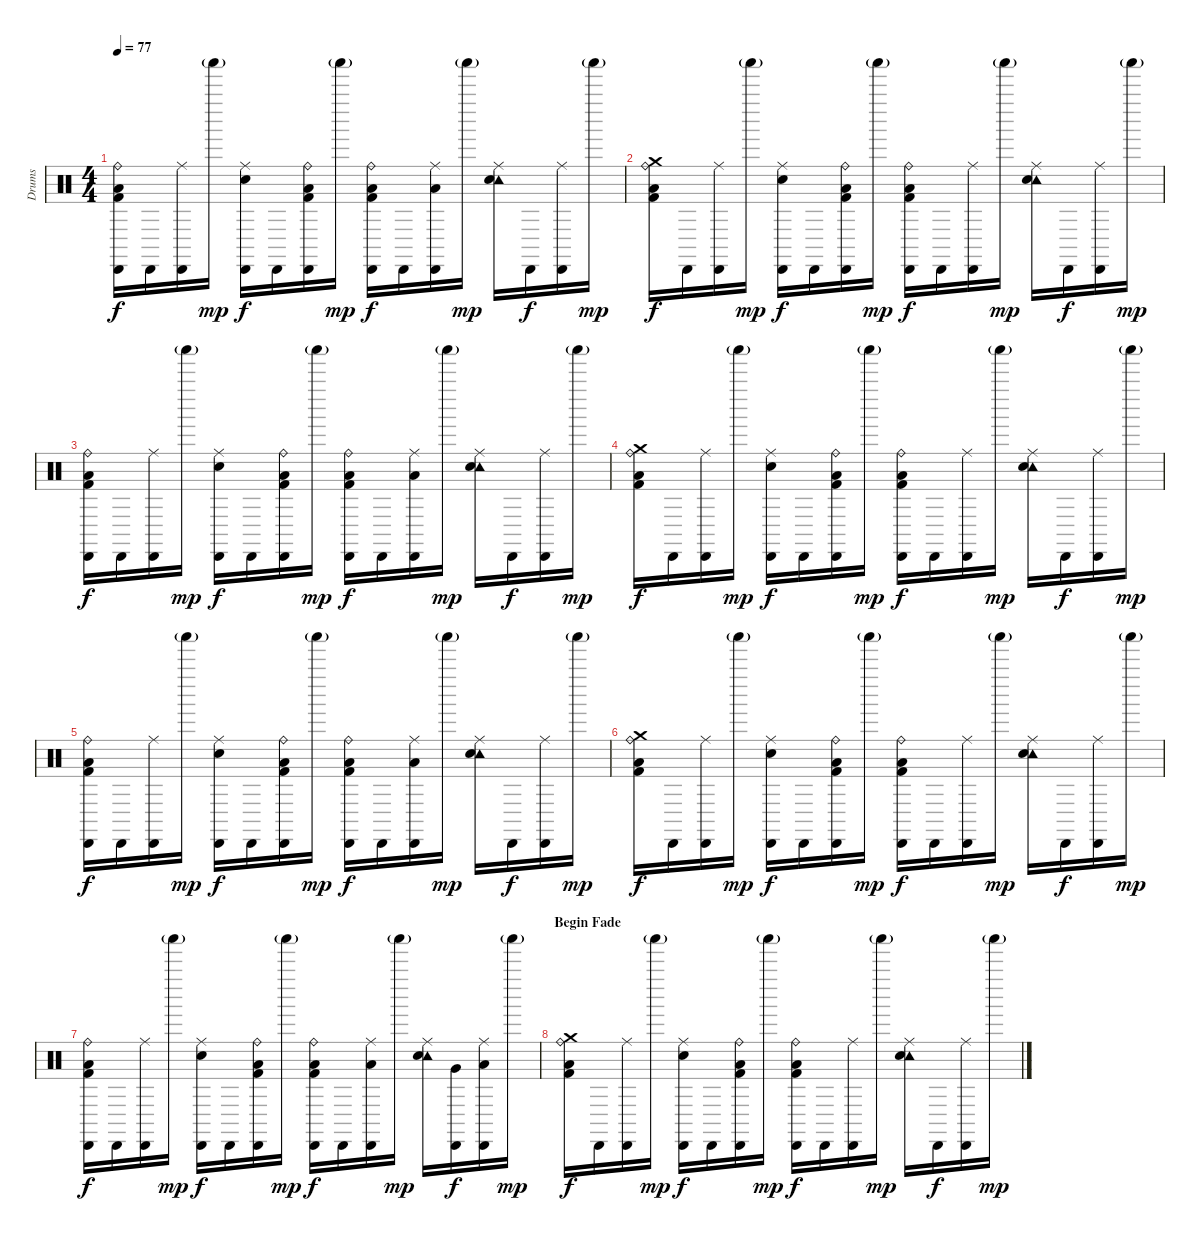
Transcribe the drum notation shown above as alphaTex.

\track ("Drums" "Drums") {instrument percussion}
\staff {score}
\articulation defaults
\ts (4 4)
\tempo 77
\clef neutral
\ks c
("Cabasa (hit)" "Ride (bell)" "Low Floor Tom (hit)" "Kick (hit) 2").16{dy f} "Cabasa (hit)".16 ("Cabasa (hit)" "Ride (middle)").16 "Shaker (hit)"{g}.16{dy mp} ("Cabasa (hit)" "Ride (middle)" "Snare (hit) 2").16{dy f} "Cabasa (hit)".16 ("Cabasa (hit)" "Ride (bell)" "Low Floor Tom (hit)" "Kick (hit) 2").16 "Shaker (hit)"{g}.16{dy mp} ("Cabasa (hit)" "Ride (bell)" "Low Floor Tom (hit)" "Kick (hit) 2").16{dy f} "Cabasa (hit)".16 ("Cabasa (hit)" "Ride (middle)" "Low Floor Tom (hit)").16 "Shaker (hit)"{g}.16{dy mp} ("Tambourine (hit)" "Ride (middle)" "Snare (hit) 2").16 "Cabasa (hit)".16{dy f} ("Cabasa (hit)" "Ride (middle)").16 "Shaker (hit)"{g}.16{dy mp} |
("Crash medium (hit)" "Ride (bell)" "Low Floor Tom (hit)" "Kick (hit) 2").16{dy f} "Cabasa (hit)".16 ("Cabasa (hit)" "Ride (middle)").16 "Shaker (hit)"{g}.16{dy mp} ("Cabasa (hit)" "Ride (middle)" "Snare (hit) 2").16{dy f} "Cabasa (hit)".16 ("Cabasa (hit)" "Ride (bell)" "Low Floor Tom (hit)" "Kick (hit) 2").16 "Shaker (hit)"{g}.16{dy mp} ("Cabasa (hit)" "Ride (bell)" "Low Floor Tom (hit)" "Kick (hit) 2").16{dy f} "Cabasa (hit)".16 ("Cabasa (hit)" "Ride (middle)").16 "Shaker (hit)"{g}.16{dy mp} ("Tambourine (hit)" "Ride (middle)" "Snare (hit) 2").16 "Cabasa (hit)".16{dy f} ("Cabasa (hit)" "Ride (middle)").16 "Shaker (hit)"{g}.16{dy mp} |
("Cabasa (hit)" "Ride (bell)" "Low Floor Tom (hit)" "Kick (hit) 2").16{dy f} "Cabasa (hit)".16 ("Cabasa (hit)" "Ride (middle)").16 "Shaker (hit)"{g}.16{dy mp} ("Cabasa (hit)" "Ride (middle)" "Snare (hit) 2").16{dy f} "Cabasa (hit)".16 ("Cabasa (hit)" "Ride (bell)" "Low Floor Tom (hit)" "Kick (hit) 2").16 "Shaker (hit)"{g}.16{dy mp} ("Cabasa (hit)" "Ride (bell)" "Low Floor Tom (hit)" "Kick (hit) 2").16{dy f} "Cabasa (hit)".16 ("Cabasa (hit)" "Ride (middle)" "Low Floor Tom (hit)").16 "Shaker (hit)"{g}.16{dy mp} ("Tambourine (hit)" "Ride (middle)" "Snare (hit) 2").16 "Cabasa (hit)".16{dy f} ("Cabasa (hit)" "Ride (middle)").16 "Shaker (hit)"{g}.16{dy mp} |
("Crash medium (hit)" "Ride (bell)" "Low Floor Tom (hit)" "Kick (hit) 2").16{dy f} "Cabasa (hit)".16 ("Cabasa (hit)" "Ride (middle)").16 "Shaker (hit)"{g}.16{dy mp} ("Cabasa (hit)" "Ride (middle)" "Snare (hit) 2").16{dy f} "Cabasa (hit)".16 ("Cabasa (hit)" "Ride (bell)" "Low Floor Tom (hit)" "Kick (hit) 2").16 "Shaker (hit)"{g}.16{dy mp} ("Cabasa (hit)" "Ride (bell)" "Low Floor Tom (hit)" "Kick (hit) 2").16{dy f} "Cabasa (hit)".16 ("Cabasa (hit)" "Ride (middle)").16 "Shaker (hit)"{g}.16{dy mp} ("Tambourine (hit)" "Ride (middle)" "Snare (hit) 2").16 "Cabasa (hit)".16{dy f} ("Cabasa (hit)" "Ride (middle)").16 "Shaker (hit)"{g}.16{dy mp} |
("Cabasa (hit)" "Ride (bell)" "Low Floor Tom (hit)" "Kick (hit) 2").16{dy f} "Cabasa (hit)".16 ("Cabasa (hit)" "Ride (middle)").16 "Shaker (hit)"{g}.16{dy mp} ("Cabasa (hit)" "Ride (middle)" "Snare (hit) 2").16{dy f} "Cabasa (hit)".16 ("Cabasa (hit)" "Ride (bell)" "Low Floor Tom (hit)" "Kick (hit) 2").16 "Shaker (hit)"{g}.16{dy mp} ("Cabasa (hit)" "Ride (bell)" "Low Floor Tom (hit)" "Kick (hit) 2").16{dy f} "Cabasa (hit)".16 ("Cabasa (hit)" "Ride (middle)" "Low Floor Tom (hit)").16 "Shaker (hit)"{g}.16{dy mp} ("Tambourine (hit)" "Ride (middle)" "Snare (hit) 2").16 "Cabasa (hit)".16{dy f} ("Cabasa (hit)" "Ride (middle)").16 "Shaker (hit)"{g}.16{dy mp} |
("Crash medium (hit)" "Ride (bell)" "Low Floor Tom (hit)" "Kick (hit) 2").16{dy f} "Cabasa (hit)".16 ("Cabasa (hit)" "Ride (middle)").16 "Shaker (hit)"{g}.16{dy mp} ("Cabasa (hit)" "Ride (middle)" "Snare (hit) 2").16{dy f} "Cabasa (hit)".16 ("Cabasa (hit)" "Ride (bell)" "Low Floor Tom (hit)" "Kick (hit) 2").16 "Shaker (hit)"{g}.16{dy mp} ("Cabasa (hit)" "Ride (bell)" "Low Floor Tom (hit)" "Kick (hit) 2").16{dy f} "Cabasa (hit)".16 ("Cabasa (hit)" "Ride (middle)").16 "Shaker (hit)"{g}.16{dy mp} ("Tambourine (hit)" "Ride (middle)" "Snare (hit) 2").16 "Cabasa (hit)".16{dy f} ("Cabasa (hit)" "Ride (middle)").16 "Shaker (hit)"{g}.16{dy mp} |
("Cabasa (hit)" "Ride (bell)" "Low Floor Tom (hit)" "Kick (hit) 2").16{dy f} "Cabasa (hit)".16 ("Cabasa (hit)" "Ride (middle)").16 "Shaker (hit)"{g}.16{dy mp} ("Cabasa (hit)" "Ride (middle)" "Snare (hit) 2").16{dy f} "Cabasa (hit)".16 ("Cabasa (hit)" "Ride (bell)" "Low Floor Tom (hit)" "Kick (hit) 2").16 "Shaker (hit)"{g}.16{dy mp} ("Cabasa (hit)" "Ride (bell)" "Low Floor Tom (hit)" "Kick (hit) 2").16{dy f} "Cabasa (hit)".16 ("Cabasa (hit)" "Ride (middle)" "Low Floor Tom (hit)").16 "Shaker (hit)"{g}.16{dy mp} ("Tambourine (hit)" "Ride (middle)" "Snare (hit) 2").16 ("Cabasa (hit)" "Very Low Tom (hit)").16{dy f} ("Cabasa (hit)" "Ride (middle)" "Low Floor Tom (hit)").16 "Shaker (hit)"{g}.16{dy mp} |
\section ("" "Begin Fade")
("Crash medium (hit)" "Ride (bell)" "Low Floor Tom (hit)" "Kick (hit) 2").16{dy f volume 9} "Cabasa (hit)".16 ("Cabasa (hit)" "Ride (middle)").16 "Shaker (hit)"{g}.16{dy mp} ("Cabasa (hit)" "Ride (middle)" "Snare (hit) 2").16{dy f} "Cabasa (hit)".16 ("Cabasa (hit)" "Ride (bell)" "Low Floor Tom (hit)" "Kick (hit) 2").16 "Shaker (hit)"{g}.16{dy mp} ("Cabasa (hit)" "Ride (bell)" "Low Floor Tom (hit)" "Kick (hit) 2").16{dy f} "Cabasa (hit)".16 ("Cabasa (hit)" "Ride (middle)").16 "Shaker (hit)"{g}.16{dy mp} ("Tambourine (hit)" "Ride (middle)" "Snare (hit) 2").16 "Cabasa (hit)".16{dy f} ("Cabasa (hit)" "Ride (middle)").16 "Shaker (hit)"{g}.16{dy mp}
